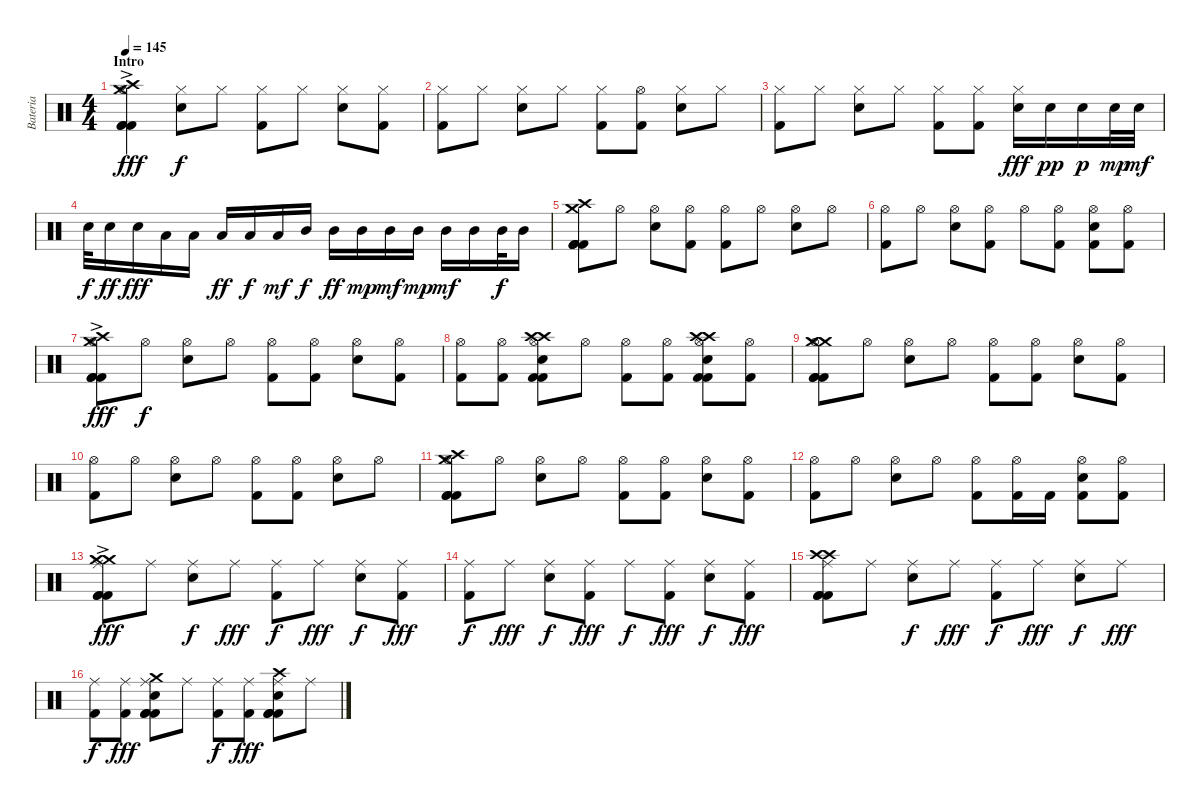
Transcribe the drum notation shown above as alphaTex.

\track ("Bateria" "Bateria") {instrument percussion}
\staff {score}
\articulation defaults
\ts (4 4)
\section ("" "Intro")
\tempo 145
\clef neutral
\ks c
("Crash medium (hit)"{ac} "Crash high (hit)" "Kick (hit) 2" "Hi-Hat (open)" "Kick (hit) 2" "Kick (hit) 2").4{dy fff} ("Hi-Hat (closed)" "Electric Snare (hit)").8{dy f} "Hi-Hat (closed)".8 ("Hi-Hat (closed)" "Kick (hit) 2").8 "Hi-Hat (closed)".8 ("Hi-Hat (closed)" "Electric Snare (hit)").8 ("Hi-Hat (closed)" "Kick (hit) 2").8 |
("Hi-Hat (closed)" "Kick (hit) 2").8 "Hi-Hat (closed)".8 ("Hi-Hat (closed)" "Electric Snare (hit)").8 "Hi-Hat (closed)".8 ("Hi-Hat (closed)" "Kick (hit) 2").8 ("Hi-Hat (open)" "Kick (hit) 2").8 ("Hi-Hat (closed)" "Electric Snare (hit)").8 "Hi-Hat (closed)".8 |
("Hi-Hat (closed)" "Kick (hit) 2").8 "Hi-Hat (closed)".8 ("Hi-Hat (closed)" "Electric Snare (hit)").8 "Hi-Hat (closed)".8 ("Hi-Hat (closed)" "Kick (hit) 2").8 ("Hi-Hat (closed)" "Kick (hit) 2").8 ("Hi-Hat (closed)" "Electric Snare (hit)").16{dy fff} "Electric Snare (hit)".16{dy pp} "Electric Snare (hit)".16{dy p} "Electric Snare (hit)".32{dy mp} "Electric Snare (hit)".32{dy mf} |
"Electric Snare (hit)".32{dy f} "Electric Snare (hit)".16{dy ff} "Electric Snare (hit)".16{dy fff} "Low Tom (hit)".16 "Low Tom (hit)".16 "Low Tom (hit)".16{dy ff} "Low Tom (hit)".16{dy f} "Low Tom (hit)".16{dy mf} "Mid Tom (hit)".16{dy f} "Mid Tom (hit)".16{dy ff} "Mid Tom (hit)".16{dy mp} "Mid Tom (hit)".16{dy mf} "Mid Tom (hit)".16{dy mp} "Mid Tom (hit)".16{dy mf} "Mid Tom (hit)".16 "Mid Tom (hit)".32{dy f} "Mid Tom (hit)".16 |
("Crash high (hit)" "Crash medium (hit)" "Kick (hit) 2" "Kick (hit) 2" "Kick (hit) 2" "Kick (hit) 2").8 "Hi-Hat (open)".8 ("Hi-Hat (open)" "Electric Snare (hit)").8 ("Hi-Hat (open)" "Kick (hit) 2").8 ("Hi-Hat (open)" "Kick (hit) 2").8 "Hi-Hat (open)".8 ("Hi-Hat (open)" "Electric Snare (hit)").8 "Hi-Hat (open)".8 |
("Hi-Hat (open)" "Kick (hit) 2").8 "Hi-Hat (open)".8 ("Hi-Hat (open)" "Electric Snare (hit)").8 ("Hi-Hat (open)" "Kick (hit) 2").8 "Hi-Hat (open)".8 ("Hi-Hat (open)" "Kick (hit) 2").8 ("Hi-Hat (open)" "Electric Snare (hit)" "Kick (hit) 2").8 ("Hi-Hat (open)" "Kick (hit) 2").8 |
("Crash medium (hit)"{ac} "Crash high (hit)" "Hi-Hat (open)" "Kick (hit) 2" "Kick (hit) 2" "Kick (hit) 2").8{dy fff} "Hi-Hat (open)".8{dy f} ("Hi-Hat (open)" "Electric Snare (hit)").8 "Hi-Hat (open)".8 ("Hi-Hat (open)" "Kick (hit) 2").8 ("Hi-Hat (open)" "Kick (hit) 2").8 ("Hi-Hat (open)" "Electric Snare (hit)").8 ("Hi-Hat (open)" "Kick (hit) 2").8 |
("Hi-Hat (open)" "Kick (hit) 2").8 ("Hi-Hat (open)" "Kick (hit) 2").8 ("Crash high (hit)" "Crash high (hit)" "Hi-Hat (open)" "Electric Snare (hit)" "Kick (hit) 2" "Kick (hit) 2").8 "Hi-Hat (open)".8 ("Hi-Hat (open)" "Kick (hit) 2").8 ("Hi-Hat (open)" "Kick (hit) 2").8 ("Crash high (hit)" "Crash high (hit)" "Hi-Hat (open)" "Electric Snare (hit)" "Kick (hit) 2" "Kick (hit) 2").8 ("Hi-Hat (open)" "Kick (hit) 2").8 |
("Crash medium (hit)" "Crash medium (hit)" "Hi-Hat (open)" "Kick (hit) 2" "Kick (hit) 2" "Kick (hit) 2").8 "Hi-Hat (open)".8 ("Hi-Hat (open)" "Electric Snare (hit)").8 "Hi-Hat (open)".8 ("Hi-Hat (open)" "Kick (hit) 2").8 ("Hi-Hat (open)" "Kick (hit) 2").8 ("Hi-Hat (open)" "Electric Snare (hit)").8 ("Hi-Hat (open)" "Kick (hit) 2").8 |
("Hi-Hat (open)" "Kick (hit) 2").8 "Hi-Hat (open)".8 ("Hi-Hat (open)" "Electric Snare (hit)").8 "Hi-Hat (open)".8 ("Hi-Hat (open)" "Kick (hit) 2").8 ("Hi-Hat (open)" "Kick (hit) 2").8 ("Hi-Hat (open)" "Electric Snare (hit)").8 "Hi-Hat (open)".8 |
("Crash medium (hit)" "Crash high (hit)" "Hi-Hat (open)" "Kick (hit) 2" "Kick (hit) 2" "Kick (hit) 2").8 "Hi-Hat (open)".8 ("Hi-Hat (open)" "Electric Snare (hit)").8 "Hi-Hat (open)".8 ("Hi-Hat (open)" "Kick (hit) 2").8 ("Hi-Hat (open)" "Kick (hit) 2").8 ("Hi-Hat (open)" "Electric Snare (hit)").8 ("Hi-Hat (open)" "Kick (hit) 2").8 |
("Hi-Hat (open)" "Kick (hit) 2").8 "Hi-Hat (open)".8 ("Hi-Hat (open)" "Electric Snare (hit)").8 "Hi-Hat (open)".8 ("Hi-Hat (open)" "Kick (hit) 2").8 ("Hi-Hat (open)" "Kick (hit) 2").16 "Kick (hit) 2".16 ("Hi-Hat (open)" "Electric Snare (hit)" "Kick (hit) 2").8 ("Hi-Hat (open)" "Kick (hit) 2").8 |
("Crash medium (hit)"{ac} "Crash medium (hit)" "Ride (middle)" "Kick (hit) 2" "Kick (hit) 2" "Kick (hit) 2").8{dy fff} "Ride (middle)".8 ("Ride (middle)" "Electric Snare (hit)").8{dy f} "Ride (middle)".8{dy fff} ("Ride (middle)" "Kick (hit) 2").8{dy f} "Ride (middle)".8{dy fff} ("Ride (middle)" "Electric Snare (hit)").8{dy f} ("Ride (middle)" "Kick (hit) 2").8{dy fff} |
("Ride (middle)" "Kick (hit) 2").8{dy f} "Ride (middle)".8{dy fff} ("Ride (middle)" "Electric Snare (hit)").8{dy f} ("Ride (middle)" "Kick (hit) 2").8{dy fff} "Ride (middle)".8{dy f} ("Ride (middle)" "Kick (hit) 2").8{dy fff} ("Ride (middle)" "Electric Snare (hit)").8{dy f} ("Ride (middle)" "Kick (hit) 2").8{dy fff} |
("Crash high (hit)" "Crash high (hit)" "Ride (middle)" "Kick (hit) 2" "Kick (hit) 2" "Kick (hit) 2").8 "Ride (middle)".8 ("Ride (middle)" "Electric Snare (hit)").8{dy f} "Ride (middle)".8{dy fff} ("Ride (middle)" "Kick (hit) 2").8{dy f} "Ride (middle)".8{dy fff} ("Ride (middle)" "Electric Snare (hit)").8{dy f} "Ride (middle)".8{dy fff} |
("Ride (middle)" "Kick (hit) 2").8{dy f} ("Ride (middle)" "Kick (hit) 2").8{dy fff} ("Crash medium (hit)" "Kick (hit) 2" "Ride (middle)" "Electric Snare (hit)" "Kick (hit) 2" "Kick (hit) 2").8 "Ride (middle)".8 ("Ride (middle)" "Kick (hit) 2").8{dy f} ("Ride (middle)" "Kick (hit) 2").8{dy fff} ("Crash high (hit)" "Kick (hit) 2" "Ride (middle)" "Electric Snare (hit)" "Kick (hit) 2" "Kick (hit) 2").8 "Ride (middle)".8
